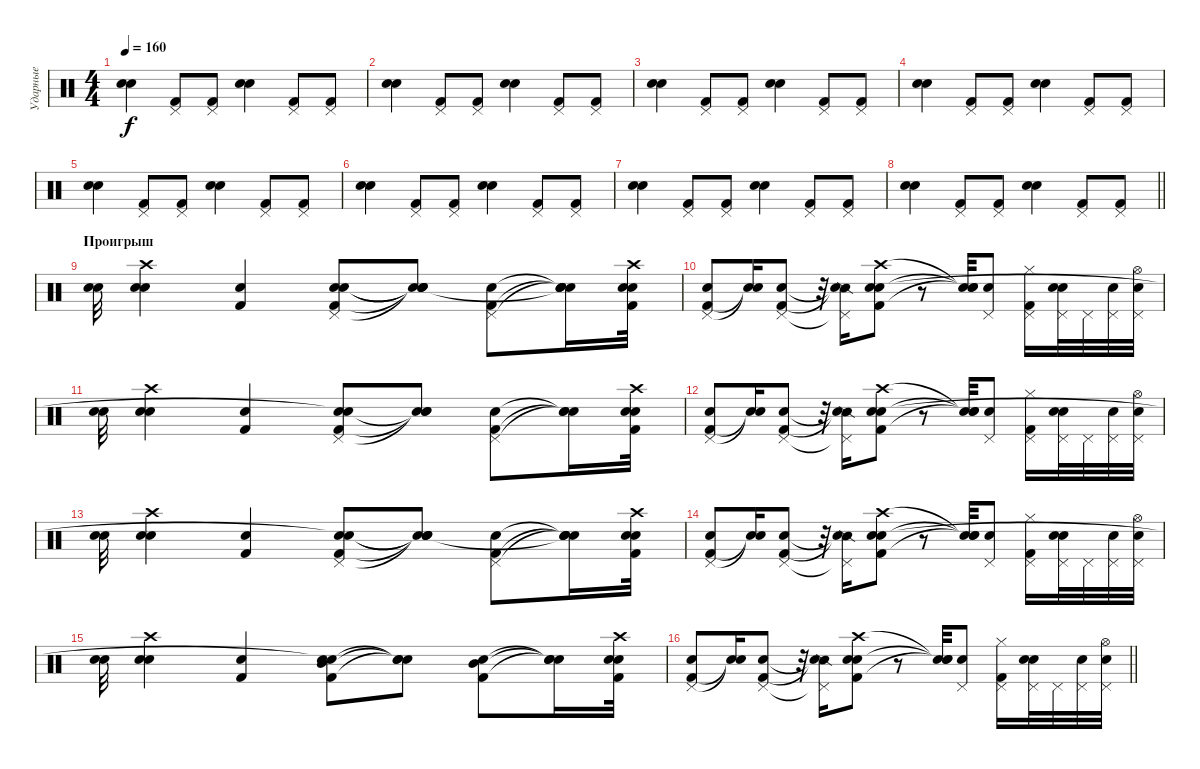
\track ("Ударные" "Ударные") {instrument percussion}
\staff {score}
\articulation defaults
\ts (4 4)
\tempo 160
\clef neutral
\ks c
("Snare (hit) 2" "Electric Snare (hit)").4{dy f} ("Kick (hit) 2" "Pedal Hi-Hat (hit)").8 ("Kick (hit) 2" "Pedal Hi-Hat (hit)").8 ("Snare (hit) 2" "Electric Snare (hit)").4 ("Kick (hit) 2" "Pedal Hi-Hat (hit)").8 ("Kick (hit) 2" "Pedal Hi-Hat (hit)").8 |
("Snare (hit) 2" "Electric Snare (hit)").4 ("Kick (hit) 2" "Pedal Hi-Hat (hit)").8 ("Kick (hit) 2" "Pedal Hi-Hat (hit)").8 ("Snare (hit) 2" "Electric Snare (hit)").4 ("Kick (hit) 2" "Pedal Hi-Hat (hit)").8 ("Kick (hit) 2" "Pedal Hi-Hat (hit)").8 |
("Snare (hit) 2" "Electric Snare (hit)").4 ("Kick (hit) 2" "Pedal Hi-Hat (hit)").8 ("Kick (hit) 2" "Pedal Hi-Hat (hit)").8 ("Snare (hit) 2" "Electric Snare (hit)").4 ("Kick (hit) 2" "Pedal Hi-Hat (hit)").8 ("Kick (hit) 2" "Pedal Hi-Hat (hit)").8 |
("Snare (hit) 2" "Electric Snare (hit)").4 ("Kick (hit) 2" "Pedal Hi-Hat (hit)").8 ("Kick (hit) 2" "Pedal Hi-Hat (hit)").8 ("Snare (hit) 2" "Electric Snare (hit)").4 ("Kick (hit) 2" "Pedal Hi-Hat (hit)").8 ("Kick (hit) 2" "Pedal Hi-Hat (hit)").8 |
("Snare (hit) 2" "Electric Snare (hit)").4 ("Kick (hit) 2" "Pedal Hi-Hat (hit)").8 ("Kick (hit) 2" "Pedal Hi-Hat (hit)").8 ("Snare (hit) 2" "Electric Snare (hit)").4 ("Kick (hit) 2" "Pedal Hi-Hat (hit)").8 ("Kick (hit) 2" "Pedal Hi-Hat (hit)").8 |
("Snare (hit) 2" "Electric Snare (hit)").4 ("Kick (hit) 2" "Pedal Hi-Hat (hit)").8 ("Kick (hit) 2" "Pedal Hi-Hat (hit)").8 ("Snare (hit) 2" "Electric Snare (hit)").4 ("Kick (hit) 2" "Pedal Hi-Hat (hit)").8 ("Kick (hit) 2" "Pedal Hi-Hat (hit)").8 |
("Snare (hit) 2" "Electric Snare (hit)").4 ("Kick (hit) 2" "Pedal Hi-Hat (hit)").8 ("Kick (hit) 2" "Pedal Hi-Hat (hit)").8 ("Snare (hit) 2" "Electric Snare (hit)").4 ("Kick (hit) 2" "Pedal Hi-Hat (hit)").8 ("Kick (hit) 2" "Pedal Hi-Hat (hit)").8 |
\barLineRight lightlight
("Snare (hit) 2" "Electric Snare (hit)").4 ("Kick (hit) 2" "Pedal Hi-Hat (hit)").8 ("Kick (hit) 2" "Pedal Hi-Hat (hit)").8 ("Snare (hit) 2" "Electric Snare (hit)").4 ("Kick (hit) 2" "Pedal Hi-Hat (hit)").8 ("Kick (hit) 2" "Pedal Hi-Hat (hit)").8 |
\section ("" "Проигрыш")
("Snare (hit) 2" "Electric Snare (hit)").32 ("Snare (hit) 2" "Electric Snare (hit)" "Crash high (hit)").4 ("Electric Snare (hit)" "Kick (hit) 2").4 ("Pedal Hi-Hat (hit)" "Kick (hit) 2" "Electric Snare (hit)" "Snare (hit)").8 ("Snare (hit)"{t} "Snare (hit)"{t} "Snare (hit)"{t} "Snare (hit)"{t}).8 ("Pedal Hi-Hat (hit)" "Kick (hit) 2" "Electric Snare (hit)").8 ("Snare (hit)"{t} "Snare (hit)"{t} "Snare (hit)"{t} "Snare (hit)"{t}).16 ("Kick (hit) 2" "Electric Snare (hit)" "Crash high (hit)" "Snare (hit) 2").32 |
("Kick (hit) 2" "Pedal Hi-Hat (hit)" "Snare (hit) 2").8 ("Snare (hit)"{t} "Snare (hit)"{t}).16 ("Kick (hit) 2" "Pedal Hi-Hat (hit)" "Electric Snare (hit)").8 r.32 ("Snare (side stick) 2"{t} "Pedal Hi-Hat (hit)"{t} "Snare (hit)"{t}).16 ("Kick (hit) 2" "Crash high (hit)" "Electric Snare (hit)" "Snare (hit) 2").8 r.8 ("Snare (hit)"{t} "Snare (hit)"{t} "Snare (hit)"{t}).32 ("Electric Snare (hit)" "Pedal Hi-Hat (hit)").8 ("Hi-Hat (closed)" "Pedal Hi-Hat (hit)" "Kick (hit) 2").16 ("Electric Snare (hit)" "Pedal Hi-Hat (hit)" "Snare (hit) 2").32 "Pedal Hi-Hat (hit)".32 ("Electric Snare (hit)" "Pedal Hi-Hat (hit)").32 ("Snare (hit) 2" "Pedal Hi-Hat (hit)" "Hi-Hat (open)").32 |
("Snare (hit) 2" "Electric Snare (hit)").32 ("Snare (hit) 2" "Electric Snare (hit)" "Crash high (hit)").4 ("Electric Snare (hit)" "Kick (hit) 2").4 ("Pedal Hi-Hat (hit)" "Kick (hit) 2" "Electric Snare (hit)" "Snare (hit)"{t}).8 ("Snare (hit)"{t} "Snare (hit)"{t} "Snare (hit)"{t}).8 ("Pedal Hi-Hat (hit)" "Kick (hit) 2" "Electric Snare (hit)").8 ("Snare (hit)"{t} "Snare (hit)"{t} "Snare (hit)"{t}).16 ("Kick (hit) 2" "Electric Snare (hit)" "Crash high (hit)" "Snare (hit) 2").32 |
("Kick (hit) 2" "Pedal Hi-Hat (hit)" "Snare (hit) 2").8 ("Snare (hit)"{t} "Snare (hit)"{t}).16 ("Kick (hit) 2" "Pedal Hi-Hat (hit)" "Electric Snare (hit)").8 r.32 ("Snare (side stick) 2"{t} "Pedal Hi-Hat (hit)"{t} "Snare (hit)"{t}).16 ("Kick (hit) 2" "Crash high (hit)" "Electric Snare (hit)" "Snare (hit) 2").8 r.8 ("Snare (hit)"{t} "Snare (hit)"{t} "Snare (hit)"{t}).32 ("Electric Snare (hit)" "Pedal Hi-Hat (hit)").8 ("Hi-Hat (closed)" "Pedal Hi-Hat (hit)" "Kick (hit) 2").16 ("Electric Snare (hit)" "Pedal Hi-Hat (hit)" "Snare (hit) 2").32 "Pedal Hi-Hat (hit)".32 ("Electric Snare (hit)" "Pedal Hi-Hat (hit)").32 ("Snare (hit) 2" "Pedal Hi-Hat (hit)" "Hi-Hat (open)").32 |
("Snare (hit) 2" "Electric Snare (hit)").32 ("Snare (hit) 2" "Electric Snare (hit)" "Crash high (hit)").4 ("Electric Snare (hit)" "Kick (hit) 2").4 ("Pedal Hi-Hat (hit)" "Kick (hit) 2" "Electric Snare (hit)" "Snare (hit)"{t}).8 ("Snare (hit)"{t} "Snare (hit)"{t} "Snare (hit)"{t} "Snare (hit)"{t}).8 ("Pedal Hi-Hat (hit)" "Kick (hit) 2" "Electric Snare (hit)").8 ("Snare (hit)"{t} "Snare (hit)"{t} "Snare (hit)"{t} "Snare (hit)"{t}).16 ("Kick (hit) 2" "Electric Snare (hit)" "Crash high (hit)" "Snare (hit) 2").32 |
("Kick (hit) 2" "Pedal Hi-Hat (hit)" "Snare (hit) 2").8 ("Snare (hit)"{t} "Snare (hit)"{t}).16 ("Kick (hit) 2" "Pedal Hi-Hat (hit)" "Electric Snare (hit)").8 r.32 ("Snare (side stick) 2"{t} "Pedal Hi-Hat (hit)"{t} "Snare (hit)"{t}).16 ("Kick (hit) 2" "Crash high (hit)" "Electric Snare (hit)" "Snare (hit) 2").8 r.8 ("Snare (hit)"{t} "Snare (hit)"{t} "Snare (hit)"{t}).32 ("Electric Snare (hit)" "Pedal Hi-Hat (hit)").8 ("Hi-Hat (closed)" "Pedal Hi-Hat (hit)" "Kick (hit) 2").16 ("Electric Snare (hit)" "Pedal Hi-Hat (hit)" "Snare (hit) 2").32 "Pedal Hi-Hat (hit)".32 ("Electric Snare (hit)" "Pedal Hi-Hat (hit)").32 ("Snare (hit) 2" "Pedal Hi-Hat (hit)" "Hi-Hat (open)").32 |
("Snare (hit) 2" "Electric Snare (hit)").32 ("Snare (hit) 2" "Electric Snare (hit)" "Crash high (hit)").4 ("Electric Snare (hit)" "Kick (hit) 2").4 ("Mid Tom (hit)" "Kick (hit) 2" "Electric Snare (hit)" "Snare (hit)"{t}).8 ("Snare (hit)"{t} "Snare (hit)"{t} "Snare (hit)"{t}).8 ("Mid Tom (hit)" "Kick (hit) 2" "Electric Snare (hit)").8 ("Snare (hit)"{t} "Snare (hit)"{t} "Snare (hit)"{t}).16 ("Kick (hit) 2" "Electric Snare (hit)" "Crash high (hit)" "Snare (hit) 2").32 |
\barLineRight lightlight
("Kick (hit) 2" "Pedal Hi-Hat (hit)" "Snare (hit) 2").8 ("Snare (hit)"{t} "Snare (hit)"{t}).16 ("Kick (hit) 2" "Pedal Hi-Hat (hit)" "Electric Snare (hit)").8 r.32 ("Snare (side stick) 2"{t} "Pedal Hi-Hat (hit)"{t} "Snare (hit)"{t}).16 ("Kick (hit) 2" "Crash high (hit)" "Electric Snare (hit)" "Snare (hit) 2").8 r.8 ("Snare (hit)"{t} "Snare (hit)"{t} "Snare (hit)"{t}).32 ("Electric Snare (hit)" "Pedal Hi-Hat (hit)").8 ("Hi-Hat (closed)" "Pedal Hi-Hat (hit)" "Kick (hit) 2").16 ("Electric Snare (hit)" "Pedal Hi-Hat (hit)" "Snare (hit) 2").32 "Pedal Hi-Hat (hit)".32 ("Electric Snare (hit)" "Pedal Hi-Hat (hit)").32 ("Snare (hit) 2" "Pedal Hi-Hat (hit)" "Hi-Hat (open)").32
